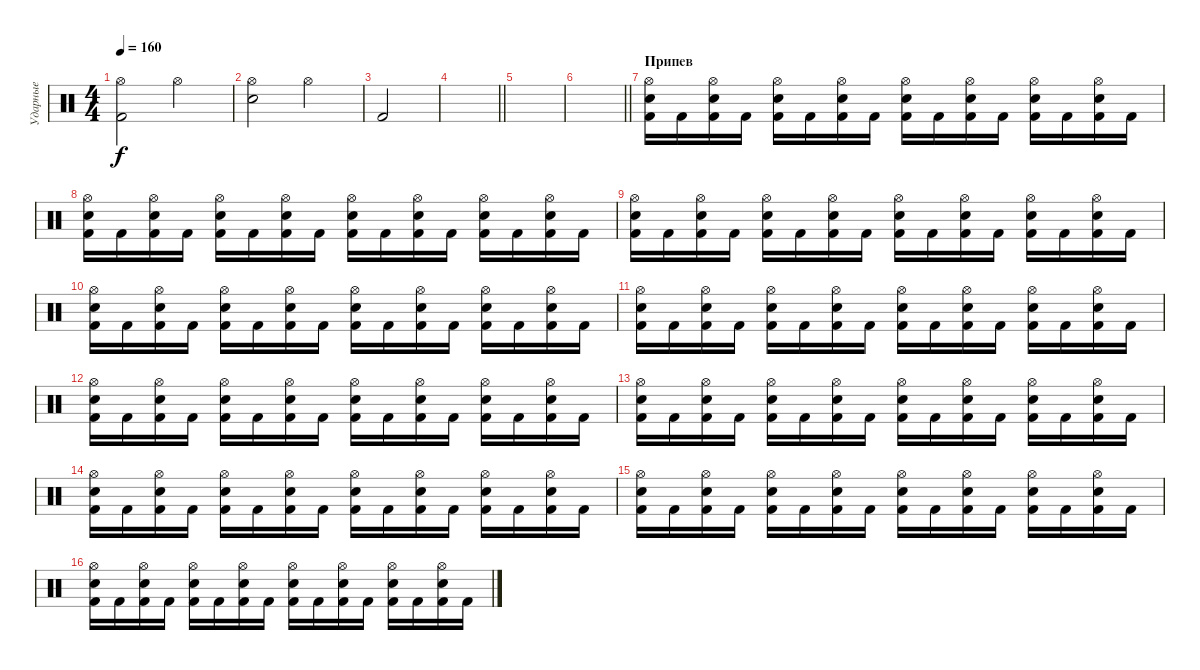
\track ("Ударные" "Ударные") {instrument percussion}
\staff {score}
\articulation defaults
\ts (4 4)
\tempo 160
\clef neutral
\ks c
("Hi-Hat (open)" "Kick (hit) 2").2{dy f} "Hi-Hat (open)".2 |
("Hi-Hat (open)" "Snare (hit) 2").2 "Hi-Hat (open)".2 |
"Kick (hit) 2".2 |
\barLineRight lightlight
|
|
\barLineRight lightlight
|
\section ("" "Припев")
("Hi-Hat (open)" "Snare (hit) 2" "Kick (hit) 2").16 "Kick (hit) 2".16 ("Hi-Hat (open)" "Snare (hit) 2" "Kick (hit) 2").16 "Kick (hit) 2".16 ("Hi-Hat (open)" "Snare (hit) 2" "Kick (hit) 2").16 "Kick (hit) 2".16 ("Hi-Hat (open)" "Snare (hit) 2" "Kick (hit) 2").16 "Kick (hit) 2".16 ("Hi-Hat (open)" "Snare (hit) 2" "Kick (hit) 2").16 "Kick (hit) 2".16 ("Hi-Hat (open)" "Snare (hit) 2" "Kick (hit) 2").16 "Kick (hit) 2".16 ("Hi-Hat (open)" "Snare (hit) 2" "Kick (hit) 2").16 "Kick (hit) 2".16 ("Hi-Hat (open)" "Snare (hit) 2" "Kick (hit) 2").16 "Kick (hit) 2".16 |
("Hi-Hat (open)" "Snare (hit) 2" "Kick (hit) 2").16 "Kick (hit) 2".16 ("Hi-Hat (open)" "Snare (hit) 2" "Kick (hit) 2").16 "Kick (hit) 2".16 ("Hi-Hat (open)" "Snare (hit) 2" "Kick (hit) 2").16 "Kick (hit) 2".16 ("Hi-Hat (open)" "Snare (hit) 2" "Kick (hit) 2").16 "Kick (hit) 2".16 ("Hi-Hat (open)" "Snare (hit) 2" "Kick (hit) 2").16 "Kick (hit) 2".16 ("Hi-Hat (open)" "Snare (hit) 2" "Kick (hit) 2").16 "Kick (hit) 2".16 ("Hi-Hat (open)" "Snare (hit) 2" "Kick (hit) 2").16 "Kick (hit) 2".16 ("Hi-Hat (open)" "Snare (hit) 2" "Kick (hit) 2").16 "Kick (hit) 2".16 |
("Hi-Hat (open)" "Snare (hit) 2" "Kick (hit) 2").16 "Kick (hit) 2".16 ("Hi-Hat (open)" "Snare (hit) 2" "Kick (hit) 2").16 "Kick (hit) 2".16 ("Hi-Hat (open)" "Snare (hit) 2" "Kick (hit) 2").16 "Kick (hit) 2".16 ("Hi-Hat (open)" "Snare (hit) 2" "Kick (hit) 2").16 "Kick (hit) 2".16 ("Hi-Hat (open)" "Snare (hit) 2" "Kick (hit) 2").16 "Kick (hit) 2".16 ("Hi-Hat (open)" "Snare (hit) 2" "Kick (hit) 2").16 "Kick (hit) 2".16 ("Hi-Hat (open)" "Snare (hit) 2" "Kick (hit) 2").16 "Kick (hit) 2".16 ("Hi-Hat (open)" "Snare (hit) 2" "Kick (hit) 2").16 "Kick (hit) 2".16 |
("Hi-Hat (open)" "Snare (hit) 2" "Kick (hit) 2").16 "Kick (hit) 2".16 ("Hi-Hat (open)" "Snare (hit) 2" "Kick (hit) 2").16 "Kick (hit) 2".16 ("Hi-Hat (open)" "Snare (hit) 2" "Kick (hit) 2").16 "Kick (hit) 2".16 ("Hi-Hat (open)" "Snare (hit) 2" "Kick (hit) 2").16 "Kick (hit) 2".16 ("Hi-Hat (open)" "Snare (hit) 2" "Kick (hit) 2").16 "Kick (hit) 2".16 ("Hi-Hat (open)" "Snare (hit) 2" "Kick (hit) 2").16 "Kick (hit) 2".16 ("Hi-Hat (open)" "Snare (hit) 2" "Kick (hit) 2").16 "Kick (hit) 2".16 ("Hi-Hat (open)" "Snare (hit) 2" "Kick (hit) 2").16 "Kick (hit) 2".16 |
("Hi-Hat (open)" "Snare (hit) 2" "Kick (hit) 2").16 "Kick (hit) 2".16 ("Hi-Hat (open)" "Snare (hit) 2" "Kick (hit) 2").16 "Kick (hit) 2".16 ("Hi-Hat (open)" "Snare (hit) 2" "Kick (hit) 2").16 "Kick (hit) 2".16 ("Hi-Hat (open)" "Snare (hit) 2" "Kick (hit) 2").16 "Kick (hit) 2".16 ("Hi-Hat (open)" "Snare (hit) 2" "Kick (hit) 2").16 "Kick (hit) 2".16 ("Hi-Hat (open)" "Snare (hit) 2" "Kick (hit) 2").16 "Kick (hit) 2".16 ("Hi-Hat (open)" "Snare (hit) 2" "Kick (hit) 2").16 "Kick (hit) 2".16 ("Hi-Hat (open)" "Snare (hit) 2" "Kick (hit) 2").16 "Kick (hit) 2".16 |
("Hi-Hat (open)" "Snare (hit) 2" "Kick (hit) 2").16 "Kick (hit) 2".16 ("Hi-Hat (open)" "Snare (hit) 2" "Kick (hit) 2").16 "Kick (hit) 2".16 ("Hi-Hat (open)" "Snare (hit) 2" "Kick (hit) 2").16 "Kick (hit) 2".16 ("Hi-Hat (open)" "Snare (hit) 2" "Kick (hit) 2").16 "Kick (hit) 2".16 ("Hi-Hat (open)" "Snare (hit) 2" "Kick (hit) 2").16 "Kick (hit) 2".16 ("Hi-Hat (open)" "Snare (hit) 2" "Kick (hit) 2").16 "Kick (hit) 2".16 ("Hi-Hat (open)" "Snare (hit) 2" "Kick (hit) 2").16 "Kick (hit) 2".16 ("Hi-Hat (open)" "Snare (hit) 2" "Kick (hit) 2").16 "Kick (hit) 2".16 |
("Hi-Hat (open)" "Snare (hit) 2" "Kick (hit) 2").16 "Kick (hit) 2".16 ("Hi-Hat (open)" "Snare (hit) 2" "Kick (hit) 2").16 "Kick (hit) 2".16 ("Hi-Hat (open)" "Snare (hit) 2" "Kick (hit) 2").16 "Kick (hit) 2".16 ("Hi-Hat (open)" "Snare (hit) 2" "Kick (hit) 2").16 "Kick (hit) 2".16 ("Hi-Hat (open)" "Snare (hit) 2" "Kick (hit) 2").16 "Kick (hit) 2".16 ("Hi-Hat (open)" "Snare (hit) 2" "Kick (hit) 2").16 "Kick (hit) 2".16 ("Hi-Hat (open)" "Snare (hit) 2" "Kick (hit) 2").16 "Kick (hit) 2".16 ("Hi-Hat (open)" "Snare (hit) 2" "Kick (hit) 2").16 "Kick (hit) 2".16 |
("Hi-Hat (open)" "Snare (hit) 2" "Kick (hit) 2").16 "Kick (hit) 2".16 ("Hi-Hat (open)" "Snare (hit) 2" "Kick (hit) 2").16 "Kick (hit) 2".16 ("Hi-Hat (open)" "Snare (hit) 2" "Kick (hit) 2").16 "Kick (hit) 2".16 ("Hi-Hat (open)" "Snare (hit) 2" "Kick (hit) 2").16 "Kick (hit) 2".16 ("Hi-Hat (open)" "Snare (hit) 2" "Kick (hit) 2").16 "Kick (hit) 2".16 ("Hi-Hat (open)" "Snare (hit) 2" "Kick (hit) 2").16 "Kick (hit) 2".16 ("Hi-Hat (open)" "Snare (hit) 2" "Kick (hit) 2").16 "Kick (hit) 2".16 ("Hi-Hat (open)" "Snare (hit) 2" "Kick (hit) 2").16 "Kick (hit) 2".16 |
("Hi-Hat (open)" "Snare (hit) 2" "Kick (hit) 2").16 "Kick (hit) 2".16 ("Hi-Hat (open)" "Snare (hit) 2" "Kick (hit) 2").16 "Kick (hit) 2".16 ("Hi-Hat (open)" "Snare (hit) 2" "Kick (hit) 2").16 "Kick (hit) 2".16 ("Hi-Hat (open)" "Snare (hit) 2" "Kick (hit) 2").16 "Kick (hit) 2".16 ("Hi-Hat (open)" "Snare (hit) 2" "Kick (hit) 2").16 "Kick (hit) 2".16 ("Hi-Hat (open)" "Snare (hit) 2" "Kick (hit) 2").16 "Kick (hit) 2".16 ("Hi-Hat (open)" "Snare (hit) 2" "Kick (hit) 2").16 "Kick (hit) 2".16 ("Hi-Hat (open)" "Snare (hit) 2" "Kick (hit) 2").16 "Kick (hit) 2".16 |
("Hi-Hat (open)" "Snare (hit) 2" "Kick (hit) 2").16 "Kick (hit) 2".16 ("Hi-Hat (open)" "Snare (hit) 2" "Kick (hit) 2").16 "Kick (hit) 2".16 ("Hi-Hat (open)" "Snare (hit) 2" "Kick (hit) 2").16 "Kick (hit) 2".16 ("Hi-Hat (open)" "Snare (hit) 2" "Kick (hit) 2").16 "Kick (hit) 2".16 ("Hi-Hat (open)" "Snare (hit) 2" "Kick (hit) 2").16 "Kick (hit) 2".16 ("Hi-Hat (open)" "Snare (hit) 2" "Kick (hit) 2").16 "Kick (hit) 2".16 ("Hi-Hat (open)" "Snare (hit) 2" "Kick (hit) 2").16 "Kick (hit) 2".16 ("Hi-Hat (open)" "Snare (hit) 2" "Kick (hit) 2").16 "Kick (hit) 2".16
